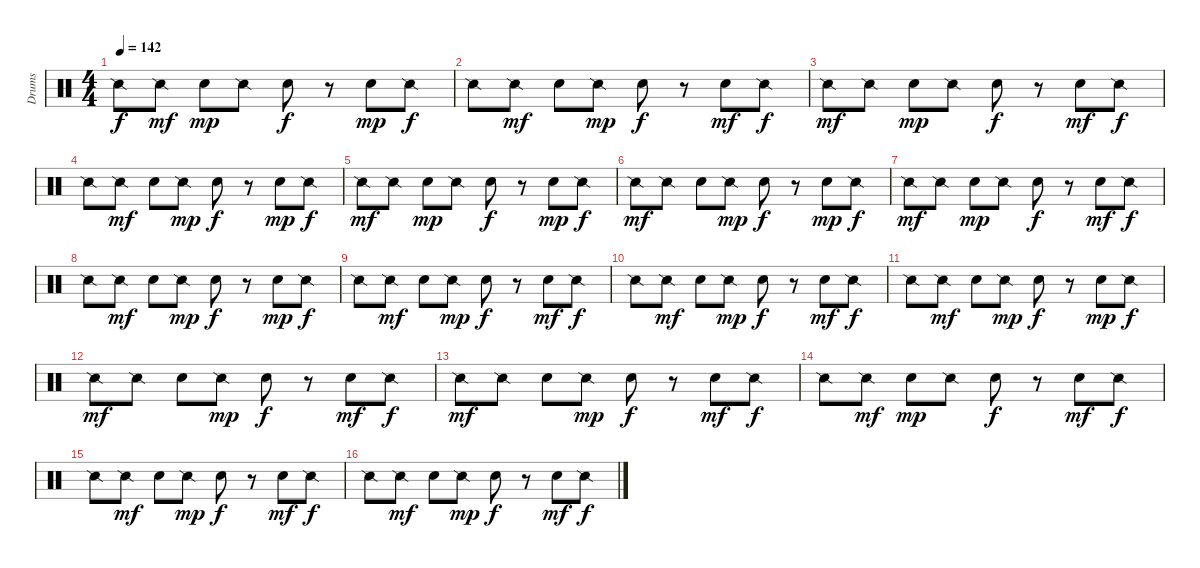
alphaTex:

\track ("Drums" "Drums") {instrument percussion}
\staff {score}
\articulation defaults
\ts (4 4)
\tempo 142
\clef neutral
\ks c "Snare (side stick) 2".8{dy f} "Snare (side stick) 2".8{dy mf} "Electric Snare (hit)".8{dy mp} "Snare (side stick) 2".8 "Electric Snare (hit)".8{dy f}
r.8 "Electric Snare (hit)".8{dy mp} "Snare (side stick) 2".8{dy f} |
"Snare (side stick) 2".8 "Snare (side stick) 2".8{dy mf} "Electric Snare (hit)".8 "Snare (side stick) 2".8{dy mp} "Electric Snare (hit)".8{dy f} r.8 "Electric Snare (hit)".8{dy mf} "Snare (side stick) 2".8{dy f} |
"Snare (side stick) 2".8{dy mf} "Snare (side stick) 2".8 "Electric Snare (hit)".8{dy mp} "Snare (side stick) 2".8 "Electric Snare (hit)".8{dy f} r.8 "Electric Snare (hit)".8{dy mf} "Snare (side stick) 2".8{dy f} |
"Snare (side stick) 2".8 "Snare (side stick) 2".8{dy mf} "Electric Snare (hit)".8 "Snare (side stick) 2".8{dy mp} "Electric Snare (hit)".8{dy f} r.8 "Electric Snare (hit)".8{dy mp} "Snare (side stick) 2".8{dy f} |
"Snare (side stick) 2".8{dy mf} "Snare (side stick) 2".8 "Electric Snare (hit)".8{dy mp} "Snare (side stick) 2".8 "Electric Snare (hit)".8{dy f} r.8 "Electric Snare (hit)".8{dy mp} "Snare (side stick) 2".8{dy f} |
"Snare (side stick) 2".8{dy mf} "Snare (side stick) 2".8 "Electric Snare (hit)".8 "Snare (side stick) 2".8{dy mp} "Electric Snare (hit)".8{dy f} r.8 "Electric Snare (hit)".8{dy mp} "Snare (side stick) 2".8{dy f} |
"Snare (side stick) 2".8{dy mf} "Snare (side stick) 2".8 "Electric Snare (hit)".8{dy mp} "Snare (side stick) 2".8 "Electric Snare (hit)".8{dy f} r.8 "Electric Snare (hit)".8{dy mf} "Snare (side stick) 2".8{dy f} |
"Snare (side stick) 2".8 "Snare (side stick) 2".8{dy mf} "Electric Snare (hit)".8 "Snare (side stick) 2".8{dy mp} "Electric Snare (hit)".8{dy f} r.8 "Electric Snare (hit)".8{dy mp} "Snare (side stick) 2".8{dy f} |
"Snare (side stick) 2".8 "Snare (side stick) 2".8{dy mf} "Electric Snare (hit)".8 "Snare (side stick) 2".8{dy mp} "Electric Snare (hit)".8{dy f} r.8 "Electric Snare (hit)".8{dy mf} "Snare (side stick) 2".8{dy f} |
"Snare (side stick) 2".8 "Snare (side stick) 2".8{dy mf} "Electric Snare (hit)".8 "Snare (side stick) 2".8{dy mp} "Electric Snare (hit)".8{dy f} r.8 "Electric Snare (hit)".8{dy mf} "Snare (side stick) 2".8{dy f} |
"Snare (side stick) 2".8 "Snare (side stick) 2".8{dy mf} "Electric Snare (hit)".8 "Snare (side stick) 2".8{dy mp} "Electric Snare (hit)".8{dy f} r.8 "Electric Snare (hit)".8{dy mp} "Snare (side stick) 2".8{dy f} |
"Snare (side stick) 2".8{dy mf} "Snare (side stick) 2".8 "Electric Snare (hit)".8 "Snare (side stick) 2".8{dy mp} "Electric Snare (hit)".8{dy f} r.8 "Electric Snare (hit)".8{dy mf} "Snare (side stick) 2".8{dy f} |
"Snare (side stick) 2".8{dy mf} "Snare (side stick) 2".8 "Electric Snare (hit)".8 "Snare (side stick) 2".8{dy mp} "Electric Snare (hit)".8{dy f} r.8 "Electric Snare (hit)".8{dy mf} "Snare (side stick) 2".8{dy f} |
"Snare (side stick) 2".8 "Snare (side stick) 2".8{dy mf} "Electric Snare (hit)".8{dy mp} "Snare (side stick) 2".8 "Electric Snare (hit)".8{dy f} r.8 "Electric Snare (hit)".8{dy mf} "Snare (side stick) 2".8{dy f} |
"Snare (side stick) 2".8 "Snare (side stick) 2".8{dy mf} "Electric Snare (hit)".8 "Snare (side stick) 2".8{dy mp} "Electric Snare (hit)".8{dy f} r.8 "Electric Snare (hit)".8{dy mf} "Snare (side stick) 2".8{dy f} |
"Snare (side stick) 2".8 "Snare (side stick) 2".8{dy mf} "Electric Snare (hit)".8 "Snare (side stick) 2".8{dy mp} "Electric Snare (hit)".8{dy f} r.8 "Electric Snare (hit)".8{dy mf} "Snare (side stick) 2".8{dy f}
